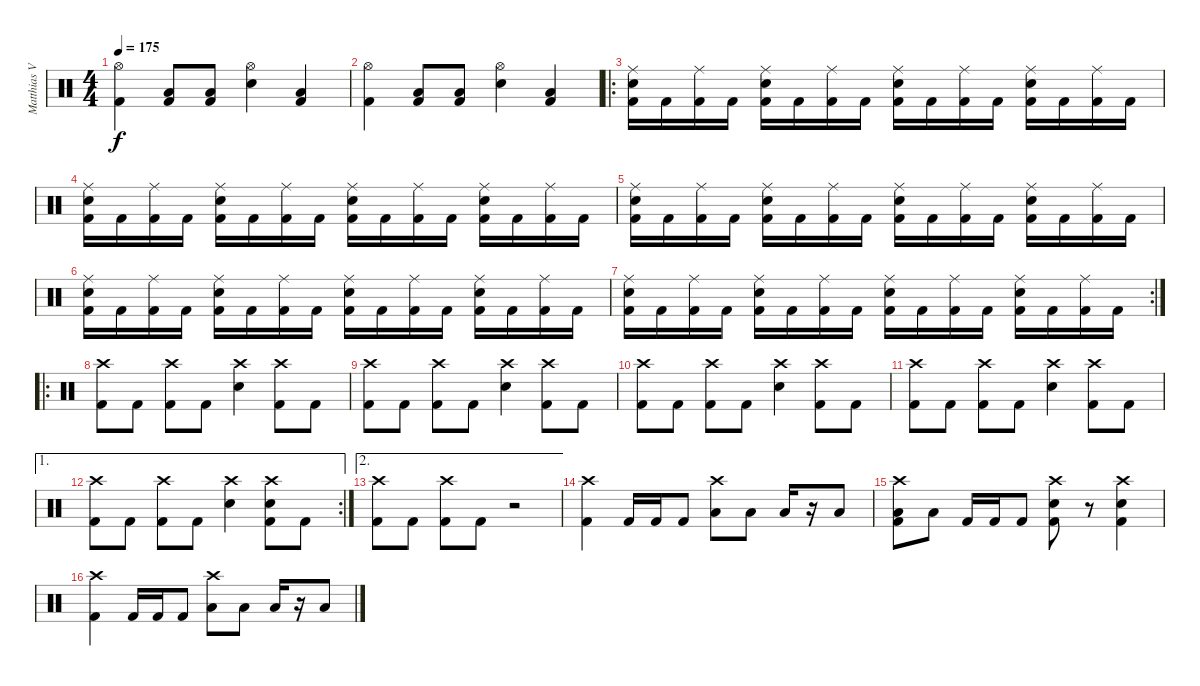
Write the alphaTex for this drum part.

\track ("Matthias Voigt" "Matthias V") {instrument percussion}
\staff {score}
\articulation defaults
\ts (4 4)
\tempo 175
\clef neutral
\ks c
("Hi-Hat (open)" "Kick (hit) 2").4{dy f} ("Low Tom (hit)" "Kick (hit) 2").8 ("Low Tom (hit)" "Kick (hit) 2").8 ("Hi-Hat (open)" "Electric Snare (hit)").4 ("Low Tom (hit)" "Kick (hit) 2").4 |
("Hi-Hat (open)" "Kick (hit) 2").4 ("Low Tom (hit)" "Kick (hit) 2").8 ("Low Tom (hit)" "Kick (hit) 2").8 ("Hi-Hat (open)" "Electric Snare (hit)").4 ("Low Tom (hit)" "Kick (hit) 2").4 |
\ro
("Ride (middle)" "Electric Snare (hit)" "Kick (hit) 2").16 "Kick (hit) 2".16 ("Ride (middle)" "Kick (hit) 2").16 "Kick (hit) 2".16 ("Ride (middle)" "Electric Snare (hit)" "Kick (hit) 2").16 "Kick (hit) 2".16 ("Ride (middle)" "Kick (hit) 2").16 "Kick (hit) 2".16 ("Ride (middle)" "Electric Snare (hit)" "Kick (hit) 2").16 "Kick (hit) 2".16 ("Ride (middle)" "Kick (hit) 2").16 "Kick (hit) 2".16 ("Ride (middle)" "Electric Snare (hit)" "Kick (hit) 2").16 "Kick (hit) 2".16 ("Ride (middle)" "Kick (hit) 2").16 "Kick (hit) 2".16 |
("Ride (middle)" "Electric Snare (hit)" "Kick (hit) 2").16 "Kick (hit) 2".16 ("Ride (middle)" "Kick (hit) 2").16 "Kick (hit) 2".16 ("Ride (middle)" "Electric Snare (hit)" "Kick (hit) 2").16 "Kick (hit) 2".16 ("Ride (middle)" "Kick (hit) 2").16 "Kick (hit) 2".16 ("Ride (middle)" "Electric Snare (hit)" "Kick (hit) 2").16 "Kick (hit) 2".16 ("Ride (middle)" "Kick (hit) 2").16 "Kick (hit) 2".16 ("Ride (middle)" "Electric Snare (hit)" "Kick (hit) 2").16 "Kick (hit) 2".16 ("Ride (middle)" "Kick (hit) 2").16 "Kick (hit) 2".16 |
("Ride (middle)" "Electric Snare (hit)" "Kick (hit) 2").16 "Kick (hit) 2".16 ("Ride (middle)" "Kick (hit) 2").16 "Kick (hit) 2".16 ("Ride (middle)" "Electric Snare (hit)" "Kick (hit) 2").16 "Kick (hit) 2".16 ("Ride (middle)" "Kick (hit) 2").16 "Kick (hit) 2".16 ("Ride (middle)" "Electric Snare (hit)" "Kick (hit) 2").16 "Kick (hit) 2".16 ("Ride (middle)" "Kick (hit) 2").16 "Kick (hit) 2".16 ("Ride (middle)" "Electric Snare (hit)" "Kick (hit) 2").16 "Kick (hit) 2".16 ("Ride (middle)" "Kick (hit) 2").16 "Kick (hit) 2".16 |
("Ride (middle)" "Electric Snare (hit)" "Kick (hit) 2").16 "Kick (hit) 2".16 ("Ride (middle)" "Kick (hit) 2").16 "Kick (hit) 2".16 ("Ride (middle)" "Electric Snare (hit)" "Kick (hit) 2").16 "Kick (hit) 2".16 ("Ride (middle)" "Kick (hit) 2").16 "Kick (hit) 2".16 ("Ride (middle)" "Electric Snare (hit)" "Kick (hit) 2").16 "Kick (hit) 2".16 ("Ride (middle)" "Kick (hit) 2").16 "Kick (hit) 2".16 ("Ride (middle)" "Electric Snare (hit)" "Kick (hit) 2").16 "Kick (hit) 2".16 ("Ride (middle)" "Kick (hit) 2").16 "Kick (hit) 2".16 |
\rc 2
("Ride (middle)" "Electric Snare (hit)" "Kick (hit) 2").16 "Kick (hit) 2".16 ("Ride (middle)" "Kick (hit) 2").16 "Kick (hit) 2".16 ("Ride (middle)" "Electric Snare (hit)" "Kick (hit) 2").16 "Kick (hit) 2".16 ("Ride (middle)" "Kick (hit) 2").16 "Kick (hit) 2".16 ("Ride (middle)" "Electric Snare (hit)" "Kick (hit) 2").16 "Kick (hit) 2".16 ("Ride (middle)" "Kick (hit) 2").16 "Kick (hit) 2".16 ("Ride (middle)" "Electric Snare (hit)" "Kick (hit) 2").16 "Kick (hit) 2".16 ("Ride (middle)" "Kick (hit) 2").16 "Kick (hit) 2".16 |
\ro
("Crash high (hit)" "Kick (hit) 2").8 "Kick (hit) 2".8 ("Crash high (hit)" "Kick (hit) 2").8 "Kick (hit) 2".8 ("Crash high (hit)" "Electric Snare (hit)").4 ("Crash high (hit)" "Kick (hit) 2").8 "Kick (hit) 2".8 |
("Crash high (hit)" "Kick (hit) 2").8 "Kick (hit) 2".8 ("Crash high (hit)" "Kick (hit) 2").8 "Kick (hit) 2".8 ("Crash high (hit)" "Electric Snare (hit)").4 ("Crash high (hit)" "Kick (hit) 2").8 "Kick (hit) 2".8 |
("Crash high (hit)" "Kick (hit) 2").8 "Kick (hit) 2".8 ("Crash high (hit)" "Kick (hit) 2").8 "Kick (hit) 2".8 ("Crash high (hit)" "Electric Snare (hit)").4 ("Crash high (hit)" "Kick (hit) 2").8 "Kick (hit) 2".8 |
("Crash high (hit)" "Kick (hit) 2").8 "Kick (hit) 2".8 ("Crash high (hit)" "Kick (hit) 2").8 "Kick (hit) 2".8 ("Crash high (hit)" "Electric Snare (hit)").4 ("Crash high (hit)" "Kick (hit) 2").8 "Kick (hit) 2".8 |
\ae 1
\rc 2
("Crash high (hit)" "Kick (hit) 2").8 "Kick (hit) 2".8 ("Crash high (hit)" "Kick (hit) 2").8 "Kick (hit) 2".8 ("Crash high (hit)" "Electric Snare (hit)").4 ("Crash high (hit)" "Electric Snare (hit)" "Kick (hit) 2").8 "Kick (hit) 2".8 |
\ae 2
("Crash high (hit)" "Kick (hit) 2").8 "Kick (hit) 2".8 ("Crash high (hit)" "Kick (hit) 2").8 "Kick (hit) 2".8 r.2 |
("Crash high (hit)" "Kick (hit) 2").4 "Kick (hit) 2".16 "Kick (hit) 2".16 "Kick (hit) 2".8 ("Crash high (hit)" "Low Tom (hit)").8 "Low Tom (hit)".8 "Low Tom (hit)".16 r.16 "Low Tom (hit)".8 |
("Crash high (hit)" "Low Tom (hit)" "Kick (hit) 2").8 "Low Tom (hit)".8 "Kick (hit) 2".16 "Kick (hit) 2".16 "Kick (hit) 2".8 ("Crash high (hit)" "Electric Snare (hit)" "Kick (hit) 2").8 r.8 ("Crash high (hit)" "Electric Snare (hit)" "Kick (hit) 2").4 |
("Crash high (hit)" "Kick (hit) 2").4 "Kick (hit) 2".16 "Kick (hit) 2".16 "Kick (hit) 2".8 ("Crash high (hit)" "Low Tom (hit)").8 "Low Tom (hit)".8 "Low Tom (hit)".16 r.16 "Low Tom (hit)".8
